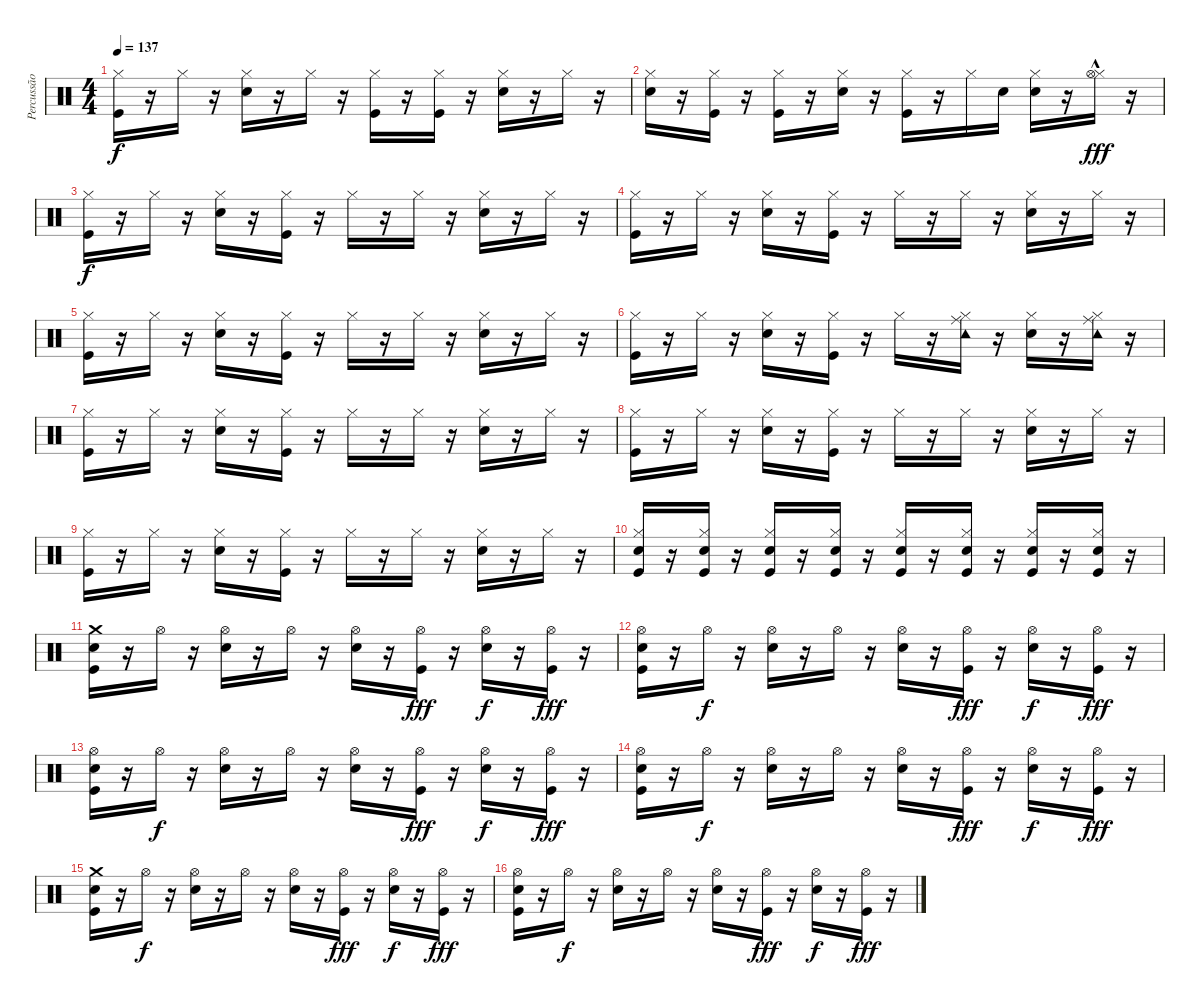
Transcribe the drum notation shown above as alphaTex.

\track ("Percussão" "Percussão") {instrument percussion}
\staff {score}
\articulation defaults
\ts (4 4)
\tempo 137
\clef neutral
\ks c
("Kick (hit)" "Hi-Hat (closed)").16{dy f} r.16 "Hi-Hat (closed)".16 r.16 ("Hi-Hat (closed)" "Snare (hit) 2").16 r.16 "Hi-Hat (closed)".16 r.16 ("Hi-Hat (closed)" "Kick (hit)").16 r.16 ("Hi-Hat (closed)" "Kick (hit)").16 r.16 ("Snare (hit) 2" "Hi-Hat (closed)").16 r.16 "Hi-Hat (closed)".16 r.16 |
("Snare (hit) 2" "Hi-Hat (closed)").16 r.16 ("Hi-Hat (closed)" "Kick (hit)").16 r.16 ("Hi-Hat (closed)" "Kick (hit)").16 r.16 ("Snare (hit) 2" "Hi-Hat (closed)").16 r.16 ("Hi-Hat (closed)" "Kick (hit)").16 r.16 "Hi-Hat (closed)".16 "Snare (hit) 2".16 ("Snare (hit) 2" "Hi-Hat (closed)").16 r.16 ("Hi-Hat (closed)"{hac} "Hi-Hat (open)").16{dy fff} r.16 |
("Kick (hit)" "Hi-Hat (closed)").16{dy f volume 11} r.16 "Hi-Hat (closed)".16 r.16 ("Hi-Hat (closed)" "Snare (hit) 2").16 r.16 ("Kick (hit)" "Hi-Hat (closed)").16 r.16 "Hi-Hat (closed)".16 r.16 "Hi-Hat (closed)".16 r.16 ("Snare (hit) 2" "Hi-Hat (closed)").16 r.16 "Hi-Hat (closed)".16 r.16 |
("Kick (hit)" "Hi-Hat (closed)").16 r.16 "Hi-Hat (closed)".16 r.16 ("Hi-Hat (closed)" "Snare (hit) 2").16 r.16 ("Kick (hit)" "Hi-Hat (closed)").16 r.16 "Hi-Hat (closed)".16 r.16 "Hi-Hat (closed)".16 r.16 ("Snare (hit) 2" "Hi-Hat (closed)").16 r.16 "Hi-Hat (closed)".16 r.16 |
("Kick (hit)" "Hi-Hat (closed)").16 r.16 "Hi-Hat (closed)".16 r.16 ("Hi-Hat (closed)" "Snare (hit) 2").16 r.16 ("Kick (hit)" "Hi-Hat (closed)").16 r.16 "Hi-Hat (closed)".16 r.16 "Hi-Hat (closed)".16 r.16 ("Snare (hit) 2" "Hi-Hat (closed)").16 r.16 "Hi-Hat (closed)".16 r.16 |
("Kick (hit)" "Hi-Hat (closed)").16 r.16 "Hi-Hat (closed)".16 r.16 ("Hi-Hat (closed)" "Snare (hit) 2").16 r.16 ("Kick (hit)" "Hi-Hat (closed)").16 r.16 "Hi-Hat (closed)".16 r.16 ("Hi-Hat (closed)" "Ride (middle)" "Tambourine (hit)").16 r.16 ("Snare (hit) 2" "Hi-Hat (closed)").16 r.16 ("Hi-Hat (closed)" "Ride (middle)" "Tambourine (hit)").16 r.16 |
("Kick (hit)" "Hi-Hat (closed)").16 r.16 "Hi-Hat (closed)".16 r.16 ("Hi-Hat (closed)" "Snare (hit) 2").16 r.16 ("Kick (hit)" "Hi-Hat (closed)").16 r.16 "Hi-Hat (closed)".16 r.16 "Hi-Hat (closed)".16 r.16 ("Snare (hit) 2" "Hi-Hat (closed)").16 r.16 "Hi-Hat (closed)".16 r.16 |
("Kick (hit)" "Hi-Hat (closed)").16 r.16 "Hi-Hat (closed)".16 r.16 ("Hi-Hat (closed)" "Snare (hit) 2").16 r.16 ("Kick (hit)" "Hi-Hat (closed)").16 r.16 "Hi-Hat (closed)".16 r.16 "Hi-Hat (closed)".16 r.16 ("Snare (hit) 2" "Hi-Hat (closed)").16 r.16 "Hi-Hat (closed)".16 r.16 |
("Kick (hit)" "Hi-Hat (closed)").16 r.16 "Hi-Hat (closed)".16 r.16 ("Hi-Hat (closed)" "Snare (hit) 2").16 r.16 ("Kick (hit)" "Hi-Hat (closed)").16 r.16 "Hi-Hat (closed)".16 r.16 "Hi-Hat (closed)".16 r.16 ("Snare (hit) 2" "Hi-Hat (closed)").16 r.16 "Hi-Hat (closed)".16 r.16 |
("Snare (hit) 2" "Kick (hit)" "Hi-Hat (closed)").16 r.16 ("Hi-Hat (closed)" "Snare (hit) 2" "Kick (hit)").16 r.16 ("Hi-Hat (closed)" "Snare (hit) 2" "Kick (hit)").16 r.16 ("Snare (hit) 2" "Kick (hit)" "Hi-Hat (closed)").16 r.16 ("Hi-Hat (closed)" "Snare (hit) 2" "Kick (hit)").16 r.16 ("Hi-Hat (closed)" "Snare (hit) 2" "Kick (hit)").16 r.16 ("Snare (hit) 2" "Kick (hit)" "Hi-Hat (closed)").16 r.16 ("Hi-Hat (closed)" "Snare (hit) 2" "Kick (hit)").16 r.16 |
("Crash medium (hit)" "Snare (hit) 2" "Kick (hit)").16 r.16 "Hi-Hat (open)".16 r.16 ("Snare (hit) 2" "Hi-Hat (open)").16 r.16 "Hi-Hat (open)".16 r.16 ("Snare (hit) 2" "Hi-Hat (open)").16 r.16 ("Kick (hit)" "Hi-Hat (open)").16{dy fff} r.16 ("Hi-Hat (open)" "Snare (hit) 2").16{dy f} r.16 ("Hi-Hat (open)" "Kick (hit)").16{dy fff} r.16 |
("Hi-Hat (open)" "Snare (hit) 2" "Kick (hit)").16 r.16 "Hi-Hat (open)".16{dy f} r.16 ("Snare (hit) 2" "Hi-Hat (open)").16 r.16 "Hi-Hat (open)".16 r.16 ("Snare (hit) 2" "Hi-Hat (open)").16 r.16 ("Kick (hit)" "Hi-Hat (open)").16{dy fff} r.16 ("Hi-Hat (open)" "Snare (hit) 2").16{dy f} r.16 ("Hi-Hat (open)" "Kick (hit)").16{dy fff} r.16 |
("Hi-Hat (open)" "Snare (hit) 2" "Kick (hit)").16 r.16 "Hi-Hat (open)".16{dy f} r.16 ("Snare (hit) 2" "Hi-Hat (open)").16 r.16 "Hi-Hat (open)".16 r.16 ("Snare (hit) 2" "Hi-Hat (open)").16 r.16 ("Kick (hit)" "Hi-Hat (open)").16{dy fff} r.16 ("Hi-Hat (open)" "Snare (hit) 2").16{dy f} r.16 ("Hi-Hat (open)" "Kick (hit)").16{dy fff} r.16 |
("Hi-Hat (open)" "Snare (hit) 2" "Kick (hit)").16 r.16 "Hi-Hat (open)".16{dy f} r.16 ("Snare (hit) 2" "Hi-Hat (open)").16 r.16 "Hi-Hat (open)".16 r.16 ("Snare (hit) 2" "Hi-Hat (open)").16 r.16 ("Kick (hit)" "Hi-Hat (open)").16{dy fff} r.16 ("Hi-Hat (open)" "Snare (hit) 2").16{dy f} r.16 ("Hi-Hat (open)" "Kick (hit)").16{dy fff} r.16 |
("Crash medium (hit)" "Snare (hit) 2" "Kick (hit)").16 r.16 "Hi-Hat (open)".16{dy f} r.16 ("Snare (hit) 2" "Hi-Hat (open)").16 r.16 "Hi-Hat (open)".16 r.16 ("Snare (hit) 2" "Hi-Hat (open)").16 r.16 ("Kick (hit)" "Hi-Hat (open)").16{dy fff} r.16 ("Hi-Hat (open)" "Snare (hit) 2").16{dy f} r.16 ("Hi-Hat (open)" "Kick (hit)").16{dy fff} r.16 |
("Hi-Hat (open)" "Snare (hit) 2" "Kick (hit)").16 r.16 "Hi-Hat (open)".16{dy f} r.16 ("Snare (hit) 2" "Hi-Hat (open)").16 r.16 "Hi-Hat (open)".16 r.16 ("Snare (hit) 2" "Hi-Hat (open)").16 r.16 ("Kick (hit)" "Hi-Hat (open)").16{dy fff} r.16 ("Hi-Hat (open)" "Snare (hit) 2").16{dy f} r.16 ("Hi-Hat (open)" "Kick (hit)").16{dy fff} r.16
